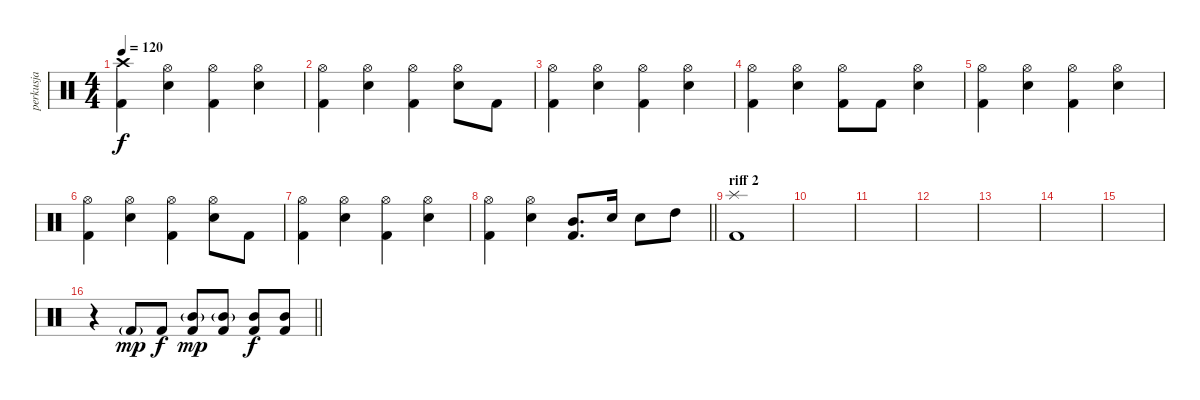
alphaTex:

\track ("perkusja" "perkusja") {instrument percussion}
\staff {score}
\articulation defaults
\ts (4 4)
\tempo 120
\clef neutral
\ks c
("Crash high (hit)" "Kick (hit) 2").4{dy f} ("Hi-Hat (open)" "Electric Snare (hit)").4 ("Hi-Hat (open)" "Kick (hit) 2").4 ("Hi-Hat (open)" "Electric Snare (hit)").4 |
("Hi-Hat (open)" "Kick (hit) 2").4 ("Hi-Hat (open)" "Electric Snare (hit)").4 ("Hi-Hat (open)" "Kick (hit) 2").4 ("Hi-Hat (open)" "Electric Snare (hit)").8 "Kick (hit) 2".8 |
("Hi-Hat (open)" "Kick (hit) 2").4 ("Hi-Hat (open)" "Electric Snare (hit)").4 ("Hi-Hat (open)" "Kick (hit) 2").4 ("Hi-Hat (open)" "Electric Snare (hit)").4 |
("Hi-Hat (open)" "Kick (hit) 2").4 ("Hi-Hat (open)" "Electric Snare (hit)").4 ("Hi-Hat (open)" "Kick (hit) 2").8 "Kick (hit) 2".8 ("Hi-Hat (open)" "Electric Snare (hit)").4 |
("Hi-Hat (open)" "Kick (hit) 2").4 ("Hi-Hat (open)" "Electric Snare (hit)").4 ("Hi-Hat (open)" "Kick (hit) 2").4 ("Hi-Hat (open)" "Electric Snare (hit)").4 |
("Hi-Hat (open)" "Kick (hit) 2").4 ("Hi-Hat (open)" "Electric Snare (hit)").4 ("Hi-Hat (open)" "Kick (hit) 2").4 ("Hi-Hat (open)" "Electric Snare (hit)").8 "Kick (hit) 2".8 |
("Hi-Hat (open)" "Kick (hit) 2").4 ("Hi-Hat (open)" "Electric Snare (hit)").4 ("Hi-Hat (open)" "Kick (hit) 2").4 ("Hi-Hat (open)" "Electric Snare (hit)").4 |
\barLineRight lightlight
("Hi-Hat (open)" "Kick (hit) 2").4 ("Hi-Hat (open)" "Electric Snare (hit)").4 ("Mid Tom (hit)" "Kick (hit) 2").8{d} "Electric Snare (hit)".16 "Electric Snare (hit)".8 "High Tom (hit)".8 |
\section ("" "riff 2")
("Splash (hit)" "Kick (hit) 2").1 |
|
|
|
|
|
|
\barLineRight lightlight
r.4 "Kick (hit) 2"{g}.8{dy mp} "Kick (hit) 2".8{dy f} ("Mid Tom (hit)"{g} "Kick (hit) 2").8{dy mp} ("Mid Tom (hit)"{g} "Kick (hit) 2").8 ("Mid Tom (hit)" "Kick (hit) 2").8{dy f} ("Mid Tom (hit)" "Kick (hit) 2").8
